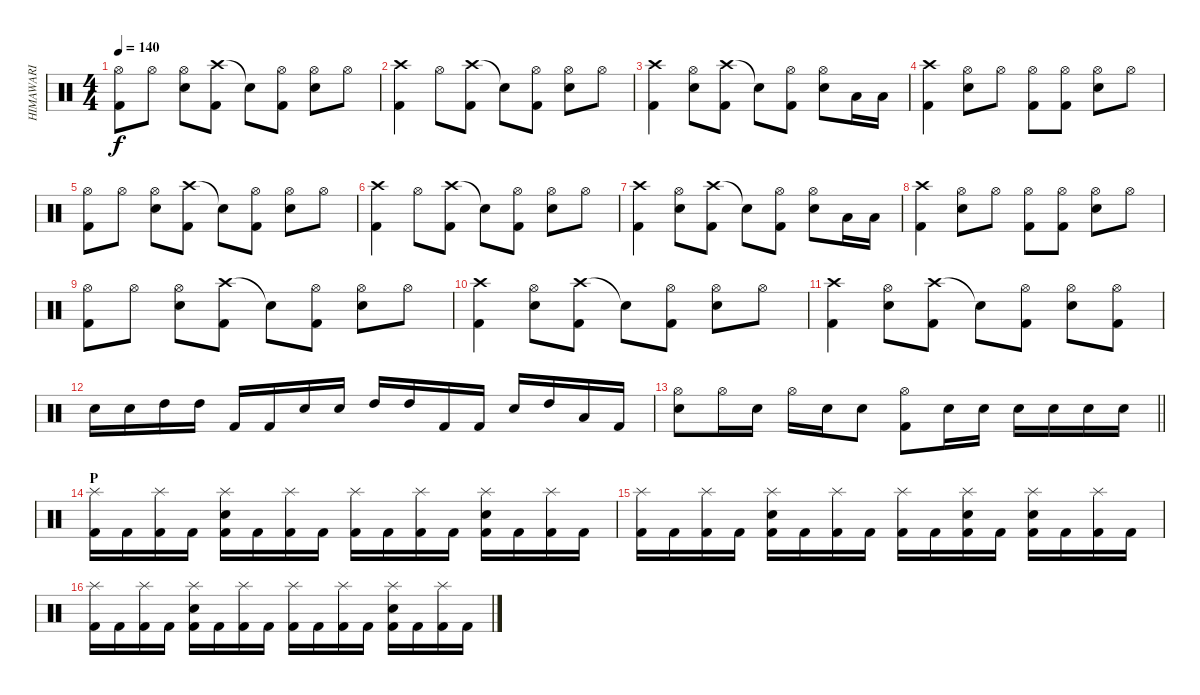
\track ("HIMAWARI" "HIMAWARI") {instrument percussion}
\staff {score}
\articulation defaults
\ts (4 4)
\tempo 140
\clef neutral
\ks c
("Hi-Hat (open)" "Kick (hit) 2").8{dy f} "Hi-Hat (open)".8 ("Hi-Hat (open)" "Snare (hit) 2").8 ("Crash high (hit)" "Kick (hit) 2").8 "Snare (hit)"{t}.8 ("Hi-Hat (open)" "Kick (hit) 2").8 ("Hi-Hat (open)" "Snare (hit) 2").8 "Hi-Hat (open)".8 |
("Crash high (hit)" "Kick (hit) 2").4 "Hi-Hat (open)".8 ("Crash high (hit)" "Kick (hit) 2").8 "Snare (hit)"{t}.8 ("Hi-Hat (open)" "Kick (hit) 2").8 ("Hi-Hat (open)" "Snare (hit) 2").8 "Hi-Hat (open)".8 |
("Crash high (hit)" "Kick (hit) 2").4 ("Hi-Hat (open)" "Snare (hit) 2").8 ("Crash high (hit)" "Kick (hit) 2").8 "Snare (hit)"{t}.8 ("Hi-Hat (open)" "Kick (hit) 2").8 ("Hi-Hat (open)" "Snare (hit) 2").8 "Low Tom (hit)".16 "Low Tom (hit)".16 |
("Crash high (hit)" "Kick (hit) 2").4 ("Hi-Hat (open)" "Snare (hit) 2").8 "Hi-Hat (open)".8 ("Hi-Hat (open)" "Kick (hit) 2").8 ("Hi-Hat (open)" "Kick (hit) 2").8 ("Hi-Hat (open)" "Snare (hit) 2").8 "Hi-Hat (open)".8 |
("Hi-Hat (open)" "Kick (hit) 2").8 "Hi-Hat (open)".8 ("Hi-Hat (open)" "Snare (hit) 2").8 ("Crash high (hit)" "Kick (hit) 2").8 "Snare (hit)"{t}.8 ("Hi-Hat (open)" "Kick (hit) 2").8 ("Hi-Hat (open)" "Snare (hit) 2").8 "Hi-Hat (open)".8 |
("Crash high (hit)" "Kick (hit) 2").4 "Hi-Hat (open)".8 ("Crash high (hit)" "Kick (hit) 2").8 "Snare (hit)"{t}.8 ("Hi-Hat (open)" "Kick (hit) 2").8 ("Hi-Hat (open)" "Snare (hit) 2").8 "Hi-Hat (open)".8 |
("Crash high (hit)" "Kick (hit) 2").4 ("Hi-Hat (open)" "Snare (hit) 2").8 ("Crash high (hit)" "Kick (hit) 2").8 "Snare (hit)"{t}.8 ("Hi-Hat (open)" "Kick (hit) 2").8 ("Hi-Hat (open)" "Snare (hit) 2").8 "Low Tom (hit)".16 "Low Tom (hit)".16 |
("Crash high (hit)" "Kick (hit) 2").4 ("Hi-Hat (open)" "Snare (hit) 2").8 "Hi-Hat (open)".8 ("Hi-Hat (open)" "Kick (hit) 2").8 ("Hi-Hat (open)" "Kick (hit) 2").8 ("Hi-Hat (open)" "Snare (hit) 2").8 "Hi-Hat (open)".8 |
("Hi-Hat (open)" "Kick (hit) 2").8 "Hi-Hat (open)".8 ("Hi-Hat (open)" "Snare (hit) 2").8 ("Crash high (hit)" "Kick (hit) 2").8 "Snare (hit)"{t}.8 ("Hi-Hat (open)" "Kick (hit) 2").8 ("Hi-Hat (open)" "Snare (hit) 2").8 "Hi-Hat (open)".8 |
("Crash high (hit)" "Kick (hit) 2").4 ("Hi-Hat (open)" "Snare (hit) 2").8 ("Crash high (hit)" "Kick (hit) 2").8 "Snare (hit)"{t}.8 ("Hi-Hat (open)" "Kick (hit) 2").8 ("Hi-Hat (open)" "Snare (hit) 2").8 "Hi-Hat (open)".8 |
("Crash high (hit)" "Kick (hit) 2").4 ("Hi-Hat (open)" "Snare (hit) 2").8 ("Crash high (hit)" "Kick (hit) 2").8 "Snare (hit)"{t}.8 ("Hi-Hat (open)" "Kick (hit) 2").8 ("Hi-Hat (open)" "Snare (hit) 2").8 ("Hi-Hat (open)" "Kick (hit) 2").8 |
"Snare (hit) 2".16 "Snare (hit) 2".16 "High Tom (hit)".16 "High Tom (hit)".16 "Kick (hit) 2".16 "Kick (hit) 2".16 "Snare (hit) 2".16 "Snare (hit) 2".16 "High Tom (hit)".16 "High Tom (hit)".16 "Kick (hit) 2".16 "Kick (hit) 2".16 "Snare (hit) 2".16 "High Tom (hit)".16 "Low Tom (hit)".16 "Kick (hit) 2".16 |
\barLineRight lightlight
("Hi-Hat (open)" "Snare (hit) 2").8 "Hi-Hat (open)".16 "Snare (hit) 2".16 "Hi-Hat (open)".16 "Snare (hit) 2".16 "Snare (hit) 2".8 ("Hi-Hat (open)" "Kick (hit) 2").8 "Snare (hit) 2".16 "Snare (hit) 2".16 "Snare (hit) 2".16 "Snare (hit) 2".16 "Snare (hit) 2".16 "Snare (hit) 2".16 |
\section ("" "P")
("Splash (hit)" "Kick (hit) 2").16 "Kick (hit) 2".16 ("Splash (hit)" "Kick (hit) 2").16 "Kick (hit) 2".16 ("Splash (hit)" "Kick (hit) 2" "Snare (hit) 2").16 "Kick (hit) 2".16 ("Splash (hit)" "Kick (hit) 2").16 "Kick (hit) 2".16 ("Splash (hit)" "Kick (hit) 2").16 "Kick (hit) 2".16 ("Splash (hit)" "Kick (hit) 2").16 "Kick (hit) 2".16 ("Splash (hit)" "Kick (hit) 2" "Snare (hit) 2").16 "Kick (hit) 2".16 ("Splash (hit)" "Kick (hit) 2").16 "Kick (hit) 2".16 |
("Splash (hit)" "Kick (hit) 2").16 "Kick (hit) 2".16 ("Splash (hit)" "Kick (hit) 2").16 "Kick (hit) 2".16 ("Splash (hit)" "Kick (hit) 2" "Snare (hit) 2").16 "Kick (hit) 2".16 ("Splash (hit)" "Kick (hit) 2").16 "Kick (hit) 2".16 ("Splash (hit)" "Kick (hit) 2").16 "Kick (hit) 2".16 ("Splash (hit)" "Kick (hit) 2" "Snare (hit) 2").16 "Kick (hit) 2".16 ("Splash (hit)" "Kick (hit) 2" "Snare (hit) 2").16 "Kick (hit) 2".16 ("Splash (hit)" "Kick (hit) 2").16 "Kick (hit) 2".16 |
("Splash (hit)" "Kick (hit) 2").16 "Kick (hit) 2".16 ("Splash (hit)" "Kick (hit) 2").16 "Kick (hit) 2".16 ("Splash (hit)" "Kick (hit) 2" "Snare (hit) 2").16 "Kick (hit) 2".16 ("Splash (hit)" "Kick (hit) 2").16 "Kick (hit) 2".16 ("Splash (hit)" "Kick (hit) 2").16 "Kick (hit) 2".16 ("Splash (hit)" "Kick (hit) 2").16 "Kick (hit) 2".16 ("Splash (hit)" "Kick (hit) 2" "Snare (hit) 2").16 "Kick (hit) 2".16 ("Splash (hit)" "Kick (hit) 2").16 "Kick (hit) 2".16
